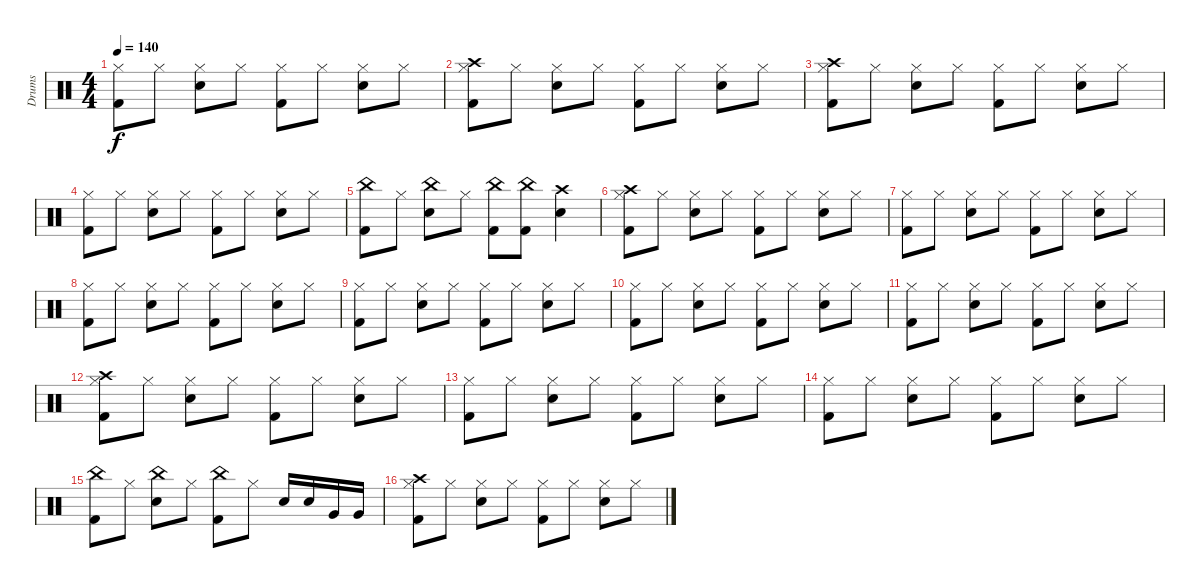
\track ("Drums" "Drums") {instrument percussion}
\staff {score}
\articulation defaults
\ts (4 4)
\tempo 140
\clef neutral
\ks c
("Hi-Hat (closed)" "Kick (hit) 2").8{dy f} "Hi-Hat (closed)".8 ("Hi-Hat (closed)" "Electric Snare (hit)").8 "Hi-Hat (closed)".8 ("Hi-Hat (closed)" "Kick (hit) 2").8 "Hi-Hat (closed)".8 ("Hi-Hat (closed)" "Electric Snare (hit)").8 "Hi-Hat (closed)".8 |
("Hi-Hat (closed)" "Kick (hit) 2" "Crash high (hit)").8 "Hi-Hat (closed)".8 ("Hi-Hat (closed)" "Electric Snare (hit)").8 "Hi-Hat (closed)".8 ("Hi-Hat (closed)" "Kick (hit) 2").8 "Hi-Hat (closed)".8 ("Hi-Hat (closed)" "Electric Snare (hit)").8 "Hi-Hat (closed)".8 |
("Hi-Hat (closed)" "Kick (hit) 2" "Crash high (hit)").8 "Hi-Hat (closed)".8 ("Hi-Hat (closed)" "Electric Snare (hit)").8 "Hi-Hat (closed)".8 ("Hi-Hat (closed)" "Kick (hit) 2").8 "Hi-Hat (closed)".8 ("Hi-Hat (closed)" "Electric Snare (hit)").8 "Hi-Hat (closed)".8 |
("Hi-Hat (closed)" "Kick (hit) 2").8 "Hi-Hat (closed)".8 ("Hi-Hat (closed)" "Electric Snare (hit)").8 "Hi-Hat (closed)".8 ("Hi-Hat (closed)" "Kick (hit) 2").8 "Hi-Hat (closed)".8 ("Hi-Hat (closed)" "Electric Snare (hit)").8 "Hi-Hat (closed)".8 |
("China (hit)" "Kick (hit) 2").8 "Hi-Hat (closed)".8 ("China (hit)" "Electric Snare (hit)").8 "Hi-Hat (closed)".8 ("China (hit)" "Kick (hit) 2").8 ("China (hit)" "Kick (hit) 2").8 ("Crash high (hit)" "Electric Snare (hit)").4 |
("Hi-Hat (closed)" "Kick (hit) 2" "Crash high (hit)").8 "Hi-Hat (closed)".8 ("Hi-Hat (closed)" "Electric Snare (hit)").8 "Hi-Hat (closed)".8 ("Hi-Hat (closed)" "Kick (hit) 2").8 "Hi-Hat (closed)".8 ("Hi-Hat (closed)" "Electric Snare (hit)").8 "Hi-Hat (closed)".8 |
("Hi-Hat (closed)" "Kick (hit) 2").8 "Hi-Hat (closed)".8 ("Hi-Hat (closed)" "Electric Snare (hit)").8 "Hi-Hat (closed)".8 ("Hi-Hat (closed)" "Kick (hit) 2").8 "Hi-Hat (closed)".8 ("Hi-Hat (closed)" "Electric Snare (hit)").8 "Hi-Hat (closed)".8 |
("Hi-Hat (closed)" "Kick (hit) 2").8 "Hi-Hat (closed)".8 ("Hi-Hat (closed)" "Electric Snare (hit)").8 "Hi-Hat (closed)".8 ("Hi-Hat (closed)" "Kick (hit) 2").8 "Hi-Hat (closed)".8 ("Hi-Hat (closed)" "Electric Snare (hit)").8 "Hi-Hat (closed)".8 |
("Hi-Hat (closed)" "Kick (hit) 2").8 "Hi-Hat (closed)".8 ("Hi-Hat (closed)" "Electric Snare (hit)").8 "Hi-Hat (closed)".8 ("Hi-Hat (closed)" "Kick (hit) 2").8 "Hi-Hat (closed)".8 ("Hi-Hat (closed)" "Electric Snare (hit)").8 "Hi-Hat (closed)".8 |
("Hi-Hat (closed)" "Kick (hit) 2").8 "Hi-Hat (closed)".8 ("Hi-Hat (closed)" "Electric Snare (hit)").8 "Hi-Hat (closed)".8 ("Hi-Hat (closed)" "Kick (hit) 2").8 "Hi-Hat (closed)".8 ("Hi-Hat (closed)" "Electric Snare (hit)").8 "Hi-Hat (closed)".8 |
("Hi-Hat (closed)" "Kick (hit) 2").8 "Hi-Hat (closed)".8 ("Hi-Hat (closed)" "Electric Snare (hit)").8 "Hi-Hat (closed)".8 ("Hi-Hat (closed)" "Kick (hit) 2").8 "Hi-Hat (closed)".8 ("Hi-Hat (closed)" "Electric Snare (hit)").8 "Hi-Hat (closed)".8 |
("Hi-Hat (closed)" "Kick (hit) 2" "Crash high (hit)").8 "Hi-Hat (closed)".8 ("Hi-Hat (closed)" "Electric Snare (hit)").8 "Hi-Hat (closed)".8 ("Hi-Hat (closed)" "Kick (hit) 2").8 "Hi-Hat (closed)".8 ("Hi-Hat (closed)" "Electric Snare (hit)").8 "Hi-Hat (closed)".8 |
("Hi-Hat (closed)" "Kick (hit) 2").8 "Hi-Hat (closed)".8 ("Hi-Hat (closed)" "Electric Snare (hit)").8 "Hi-Hat (closed)".8 ("Hi-Hat (closed)" "Kick (hit) 2").8 "Hi-Hat (closed)".8 ("Hi-Hat (closed)" "Electric Snare (hit)").8 "Hi-Hat (closed)".8 |
("Hi-Hat (closed)" "Kick (hit) 2").8 "Hi-Hat (closed)".8 ("Hi-Hat (closed)" "Electric Snare (hit)").8 "Hi-Hat (closed)".8 ("Hi-Hat (closed)" "Kick (hit) 2").8 "Hi-Hat (closed)".8 ("Hi-Hat (closed)" "Electric Snare (hit)").8 "Hi-Hat (closed)".8 |
("China (hit)" "Kick (hit) 2").8 "Hi-Hat (closed)".8 ("China (hit)" "Electric Snare (hit)").8 "Hi-Hat (closed)".8 ("China (hit)" "Kick (hit) 2").8 "Hi-Hat (closed)".8 "Electric Snare (hit)".16 "Electric Snare (hit)".16 "Very Low Tom (hit)".16 "Very Low Tom (hit)".16 |
("Hi-Hat (closed)" "Kick (hit) 2" "Crash high (hit)").8 "Hi-Hat (closed)".8 ("Hi-Hat (closed)" "Electric Snare (hit)").8 "Hi-Hat (closed)".8 ("Hi-Hat (closed)" "Kick (hit) 2").8 "Hi-Hat (closed)".8 ("Hi-Hat (closed)" "Electric Snare (hit)").8 "Hi-Hat (closed)".8
